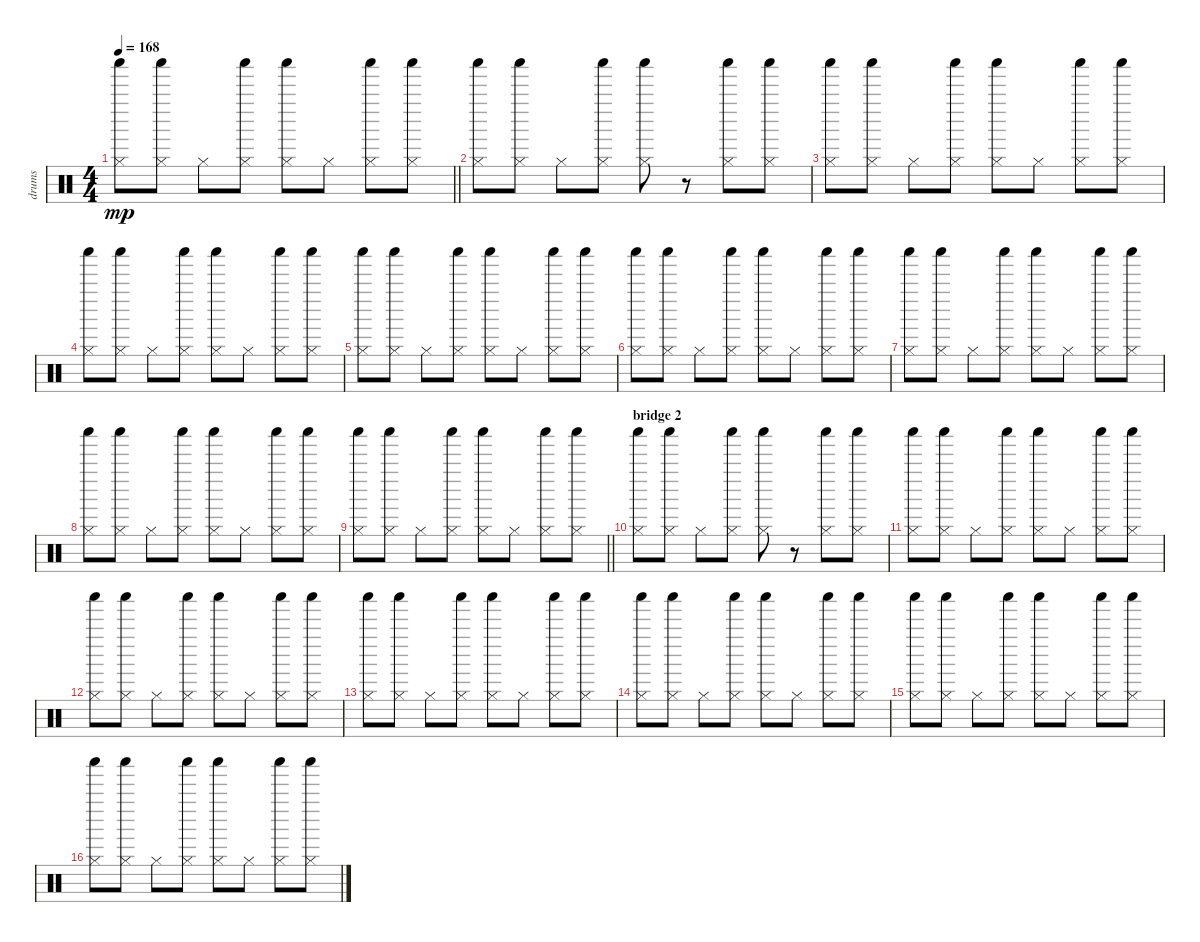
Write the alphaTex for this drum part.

\track ("drums" "drums") {instrument percussion}
\staff {score}
\articulation defaults
\ts (4 4)
\tempo 168
\clef neutral
\barLineRight lightlight
\ks c
("Hi-Hat (closed)" "Shaker (hit)").8{dy mp} ("Hi-Hat (closed)" "Shaker (hit)").8 "Hi-Hat (closed)".8 ("Hi-Hat (closed)" "Shaker (hit)").8 ("Hi-Hat (closed)" "Shaker (hit)").8 "Hi-Hat (closed)".8 ("Hi-Hat (closed)" "Shaker (hit)").8 ("Hi-Hat (closed)" "Shaker (hit)").8 |
("Hi-Hat (closed)" "Shaker (hit)").8 ("Hi-Hat (closed)" "Shaker (hit)").8 "Hi-Hat (closed)".8 ("Hi-Hat (closed)" "Shaker (hit)").8 ("Hi-Hat (closed)" "Shaker (hit)").8 r.8 ("Hi-Hat (closed)" "Shaker (hit)").8 ("Hi-Hat (closed)" "Shaker (hit)").8 |
("Hi-Hat (closed)" "Shaker (hit)").8 ("Hi-Hat (closed)" "Shaker (hit)").8 "Hi-Hat (closed)".8 ("Hi-Hat (closed)" "Shaker (hit)").8 ("Hi-Hat (closed)" "Shaker (hit)").8 "Hi-Hat (closed)".8 ("Hi-Hat (closed)" "Shaker (hit)").8 ("Hi-Hat (closed)" "Shaker (hit)").8 |
("Hi-Hat (closed)" "Shaker (hit)").8 ("Hi-Hat (closed)" "Shaker (hit)").8 "Hi-Hat (closed)".8 ("Hi-Hat (closed)" "Shaker (hit)").8 ("Hi-Hat (closed)" "Shaker (hit)").8 "Hi-Hat (closed)".8 ("Hi-Hat (closed)" "Shaker (hit)").8 ("Hi-Hat (closed)" "Shaker (hit)").8 |
("Hi-Hat (closed)" "Shaker (hit)").8 ("Hi-Hat (closed)" "Shaker (hit)").8 "Hi-Hat (closed)".8 ("Hi-Hat (closed)" "Shaker (hit)").8 ("Hi-Hat (closed)" "Shaker (hit)").8 "Hi-Hat (closed)".8 ("Hi-Hat (closed)" "Shaker (hit)").8 ("Hi-Hat (closed)" "Shaker (hit)").8 |
("Hi-Hat (closed)" "Shaker (hit)").8 ("Hi-Hat (closed)" "Shaker (hit)").8 "Hi-Hat (closed)".8 ("Hi-Hat (closed)" "Shaker (hit)").8 ("Hi-Hat (closed)" "Shaker (hit)").8 "Hi-Hat (closed)".8 ("Hi-Hat (closed)" "Shaker (hit)").8 ("Hi-Hat (closed)" "Shaker (hit)").8 |
("Hi-Hat (closed)" "Shaker (hit)").8 ("Hi-Hat (closed)" "Shaker (hit)").8 "Hi-Hat (closed)".8 ("Hi-Hat (closed)" "Shaker (hit)").8 ("Hi-Hat (closed)" "Shaker (hit)").8 "Hi-Hat (closed)".8 ("Hi-Hat (closed)" "Shaker (hit)").8 ("Hi-Hat (closed)" "Shaker (hit)").8 |
("Hi-Hat (closed)" "Shaker (hit)").8 ("Hi-Hat (closed)" "Shaker (hit)").8 "Hi-Hat (closed)".8 ("Hi-Hat (closed)" "Shaker (hit)").8 ("Hi-Hat (closed)" "Shaker (hit)").8 "Hi-Hat (closed)".8 ("Hi-Hat (closed)" "Shaker (hit)").8 ("Hi-Hat (closed)" "Shaker (hit)").8 |
\barLineRight lightlight
("Hi-Hat (closed)" "Shaker (hit)").8 ("Hi-Hat (closed)" "Shaker (hit)").8 "Hi-Hat (closed)".8 ("Hi-Hat (closed)" "Shaker (hit)").8 ("Hi-Hat (closed)" "Shaker (hit)").8 "Hi-Hat (closed)".8 ("Hi-Hat (closed)" "Shaker (hit)").8 ("Hi-Hat (closed)" "Shaker (hit)").8 |
\section ("" "bridge 2")
("Hi-Hat (closed)" "Shaker (hit)").8 ("Hi-Hat (closed)" "Shaker (hit)").8 "Hi-Hat (closed)".8 ("Hi-Hat (closed)" "Shaker (hit)").8 ("Hi-Hat (closed)" "Shaker (hit)").8 r.8 ("Hi-Hat (closed)" "Shaker (hit)").8 ("Hi-Hat (closed)" "Shaker (hit)").8 |
("Hi-Hat (closed)" "Shaker (hit)").8 ("Hi-Hat (closed)" "Shaker (hit)").8 "Hi-Hat (closed)".8 ("Hi-Hat (closed)" "Shaker (hit)").8 ("Hi-Hat (closed)" "Shaker (hit)").8 "Hi-Hat (closed)".8 ("Hi-Hat (closed)" "Shaker (hit)").8 ("Hi-Hat (closed)" "Shaker (hit)").8 |
("Hi-Hat (closed)" "Shaker (hit)").8 ("Hi-Hat (closed)" "Shaker (hit)").8 "Hi-Hat (closed)".8 ("Hi-Hat (closed)" "Shaker (hit)").8 ("Hi-Hat (closed)" "Shaker (hit)").8 "Hi-Hat (closed)".8 ("Hi-Hat (closed)" "Shaker (hit)").8 ("Hi-Hat (closed)" "Shaker (hit)").8 |
("Hi-Hat (closed)" "Shaker (hit)").8 ("Hi-Hat (closed)" "Shaker (hit)").8 "Hi-Hat (closed)".8 ("Hi-Hat (closed)" "Shaker (hit)").8 ("Hi-Hat (closed)" "Shaker (hit)").8 "Hi-Hat (closed)".8 ("Hi-Hat (closed)" "Shaker (hit)").8 ("Hi-Hat (closed)" "Shaker (hit)").8 |
("Hi-Hat (closed)" "Shaker (hit)").8 ("Hi-Hat (closed)" "Shaker (hit)").8 "Hi-Hat (closed)".8 ("Hi-Hat (closed)" "Shaker (hit)").8 ("Hi-Hat (closed)" "Shaker (hit)").8 "Hi-Hat (closed)".8 ("Hi-Hat (closed)" "Shaker (hit)").8 ("Hi-Hat (closed)" "Shaker (hit)").8 |
("Hi-Hat (closed)" "Shaker (hit)").8 ("Hi-Hat (closed)" "Shaker (hit)").8 "Hi-Hat (closed)".8 ("Hi-Hat (closed)" "Shaker (hit)").8 ("Hi-Hat (closed)" "Shaker (hit)").8 "Hi-Hat (closed)".8 ("Hi-Hat (closed)" "Shaker (hit)").8 ("Hi-Hat (closed)" "Shaker (hit)").8 |
("Hi-Hat (closed)" "Shaker (hit)").8 ("Hi-Hat (closed)" "Shaker (hit)").8 "Hi-Hat (closed)".8 ("Hi-Hat (closed)" "Shaker (hit)").8 ("Hi-Hat (closed)" "Shaker (hit)").8 "Hi-Hat (closed)".8 ("Hi-Hat (closed)" "Shaker (hit)").8 ("Hi-Hat (closed)" "Shaker (hit)").8
